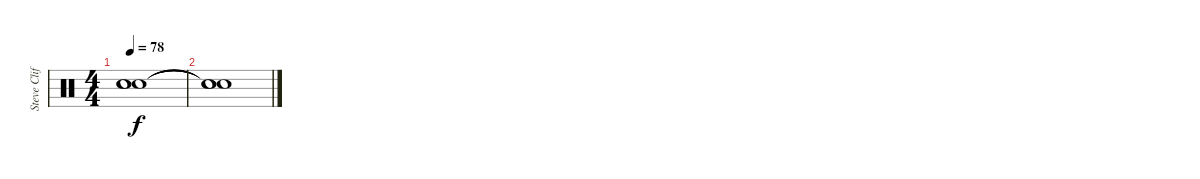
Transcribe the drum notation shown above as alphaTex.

\track ("Steve Clifford" "Steve Clif") {instrument percussion}
\staff
\articulation defaults
\ts (4 4)
\tempo 78
\clef neutral
\ks c
("Snare (hit)"{t} "Snare (hit)"{t} "Snare (hit)"{t}).1{dy f} |
("Snare (hit)"{t} "Snare (hit)"{t} "Snare (hit)"{t}).1
